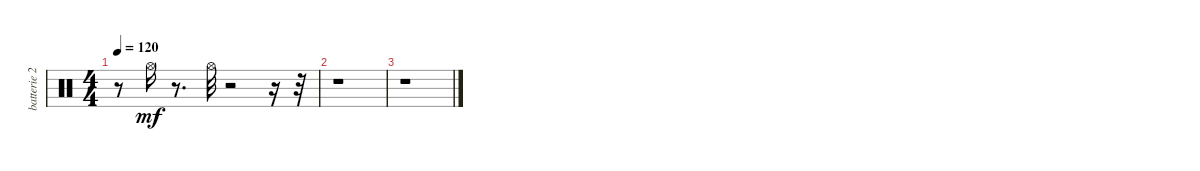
\track ("batterie 2" "batterie 2") {instrument percussion}
\staff {score}
\articulation defaults
\ts (4 4)
\tempo 120
\clef neutral
\ks c
r.8{dy mf} "Hi-Hat (open)".16 r.8{d} "Hi-Hat (open)".32 r.2 r.16 r.32 |
r.1 |
r.1
